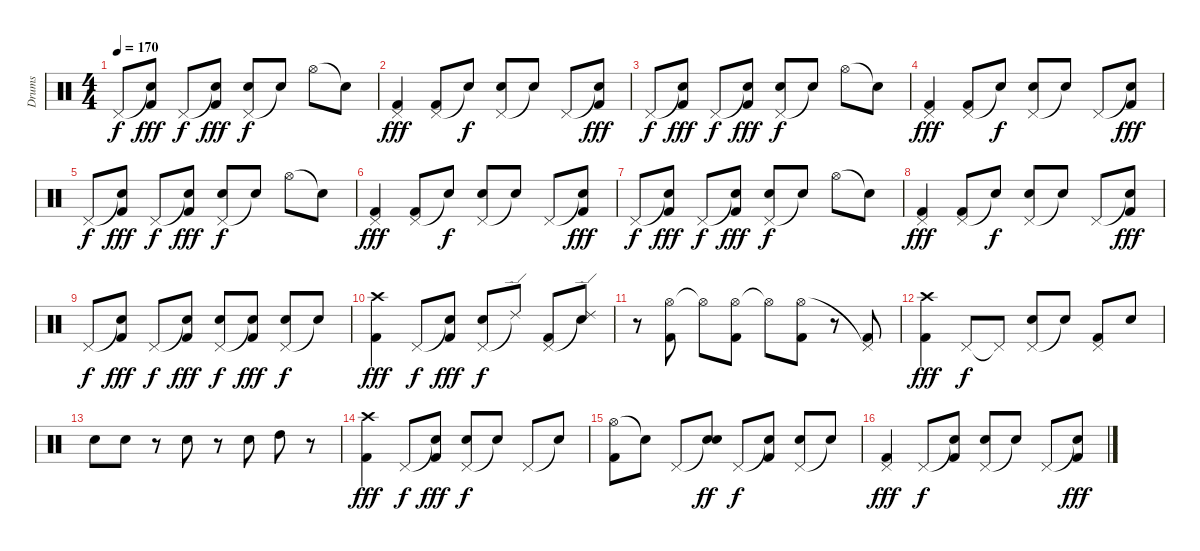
\track ("Drums" "Drums") {instrument percussion}
\staff {score}
\articulation defaults
\ts (4 4)
\tempo 170
\clef neutral
\ks c "Pedal Hi-Hat (hit)".8{dy f}
("Snare (hit)"{t} "Kick (hit) 2").8{dy fff} "Pedal Hi-Hat (hit)".8{dy f} ("Snare (hit)"{t} "Kick (hit) 2").8{dy fff} ("Pedal Hi-Hat (hit)" "Electric Snare (hit)").8{dy f} "Snare (hit)"{t}.8 "Hi-Hat (open)".8 "Snare (hit)"{t}.8 |
("Pedal Hi-Hat (hit)" "Kick (hit) 2").4{dy fff} ("Pedal Hi-Hat (hit)" "Kick (hit) 2").8 "Snare (hit)"{t}.8{dy f} ("Pedal Hi-Hat (hit)" "Electric Snare (hit)").8 "Snare (hit)"{t}.8 "Pedal Hi-Hat (hit)".8 ("Snare (hit)"{t} "Kick (hit) 2").8{dy fff} |
"Pedal Hi-Hat (hit)".8{dy f} ("Snare (hit)"{t} "Kick (hit) 2").8{dy fff} "Pedal Hi-Hat (hit)".8{dy f} ("Snare (hit)"{t} "Kick (hit) 2").8{dy fff} ("Pedal Hi-Hat (hit)" "Electric Snare (hit)").8{dy f} "Snare (hit)"{t}.8 "Hi-Hat (open)".8 "Snare (hit)"{t}.8 |
("Pedal Hi-Hat (hit)" "Kick (hit) 2").4{dy fff} ("Pedal Hi-Hat (hit)" "Kick (hit) 2").8 "Snare (hit)"{t}.8{dy f} ("Pedal Hi-Hat (hit)" "Electric Snare (hit)").8 "Snare (hit)"{t}.8 "Pedal Hi-Hat (hit)".8 ("Snare (hit)"{t} "Kick (hit) 2").8{dy fff} |
"Pedal Hi-Hat (hit)".8{dy f} ("Snare (hit)"{t} "Kick (hit) 2").8{dy fff} "Pedal Hi-Hat (hit)".8{dy f} ("Snare (hit)"{t} "Kick (hit) 2").8{dy fff} ("Pedal Hi-Hat (hit)" "Electric Snare (hit)").8{dy f} "Snare (hit)"{t}.8 "Hi-Hat (open)".8 "Snare (hit)"{t}.8 |
("Pedal Hi-Hat (hit)" "Kick (hit) 2").4{dy fff} ("Pedal Hi-Hat (hit)" "Kick (hit) 2").8 "Snare (hit)"{t}.8{dy f} ("Pedal Hi-Hat (hit)" "Electric Snare (hit)").8 "Snare (hit)"{t}.8 "Pedal Hi-Hat (hit)".8 ("Snare (hit)"{t} "Kick (hit) 2").8{dy fff} |
"Pedal Hi-Hat (hit)".8{dy f} ("Snare (hit)"{t} "Kick (hit) 2").8{dy fff} "Pedal Hi-Hat (hit)".8{dy f} ("Snare (hit)"{t} "Kick (hit) 2").8{dy fff} ("Pedal Hi-Hat (hit)" "Electric Snare (hit)").8{dy f} "Snare (hit)"{t}.8 "Hi-Hat (open)".8 "Snare (hit)"{t}.8 |
("Pedal Hi-Hat (hit)" "Kick (hit) 2").4{dy fff} ("Pedal Hi-Hat (hit)" "Kick (hit) 2").8 "Snare (hit)"{t}.8{dy f} ("Pedal Hi-Hat (hit)" "Electric Snare (hit)").8 "Snare (hit)"{t}.8 "Pedal Hi-Hat (hit)".8 ("Snare (hit)"{t} "Kick (hit) 2").8{dy fff} |
"Pedal Hi-Hat (hit)".8{dy f} ("Snare (hit)"{t} "Kick (hit) 2").8{dy fff} "Pedal Hi-Hat (hit)".8{dy f} ("Snare (hit)"{t} "Kick (hit) 2").8{dy fff} ("Pedal Hi-Hat (hit)" "Electric Snare (hit)").8{dy f} ("Snare (hit)"{t} "Kick (hit) 2").8{dy fff} ("Pedal Hi-Hat (hit)" "Electric Snare (hit)").8{dy f} "Snare (hit)"{t}.8 |
("Crash high (hit)" "Kick (hit) 2").4{dy fff} "Pedal Hi-Hat (hit)".8{dy f} ("Snare (hit)"{t} "Kick (hit) 2").8{dy fff} ("Pedal Hi-Hat (hit)" "Electric Snare (hit)").8{dy f} "Ride (edge) 2"{t}.8 ("Pedal Hi-Hat (hit)" "Kick (hit) 2").8 ("Ride (edge) 2"{t} "Electric Snare (hit)").8 |
r.8 ("Hi-Hat (open)" "Kick (hit) 2").8 "Hi-Hat (open)"{t}.8 ("Hi-Hat (open)" "Kick (hit) 2").8 "Hi-Hat (open)"{t}.8 ("Hi-Hat (open)" "Kick (hit) 2").8 r.8 ("Pedal Hi-Hat (hit)"{t} "Kick (hit) 2").8 |
("Crash high (hit)" "Kick (hit) 2").4{dy fff} "Pedal Hi-Hat (hit)".8{dy f} "Pedal Hi-Hat (hit)"{t}.8 ("Pedal Hi-Hat (hit)" "Electric Snare (hit)").8 "Snare (hit)"{t}.8 ("Pedal Hi-Hat (hit)" "Kick (hit) 2").8 "Electric Snare (hit)".8 |
"Electric Snare (hit)".8 "Electric Snare (hit)".8 r.8 "Electric Snare (hit)".8 r.8 "Electric Snare (hit)".8 "High Tom (hit)".8 r.8 |
("Crash high (hit)" "Kick (hit) 2").4{dy fff} "Pedal Hi-Hat (hit)".8{dy f} ("Snare (hit)"{t} "Kick (hit) 2").8{dy fff} ("Pedal Hi-Hat (hit)" "Electric Snare (hit)").8{dy f} "Snare (hit)"{t}.8 "Pedal Hi-Hat (hit)".8 "Snare (hit)"{t}.8 |
("Hi-Hat (open)" "Kick (hit) 2").8 "Snare (hit)"{t}.8 "Pedal Hi-Hat (hit)".8 ("Snare (hit)"{t} "Electric Snare (hit)").8{dy ff} "Pedal Hi-Hat (hit)".8{dy f} ("Snare (hit)"{t} "Kick (hit) 2").8 ("Pedal Hi-Hat (hit)" "Electric Snare (hit)").8 "Snare (hit)"{t}.8 |
("Pedal Hi-Hat (hit)" "Kick (hit) 2").4{dy fff} "Pedal Hi-Hat (hit)".8{dy f} ("Snare (hit)"{t} "Kick (hit) 2").8 ("Pedal Hi-Hat (hit)" "Electric Snare (hit)").8 "Snare (hit)"{t}.8 "Pedal Hi-Hat (hit)".8 ("Snare (hit)"{t} "Kick (hit) 2").8{dy fff}
